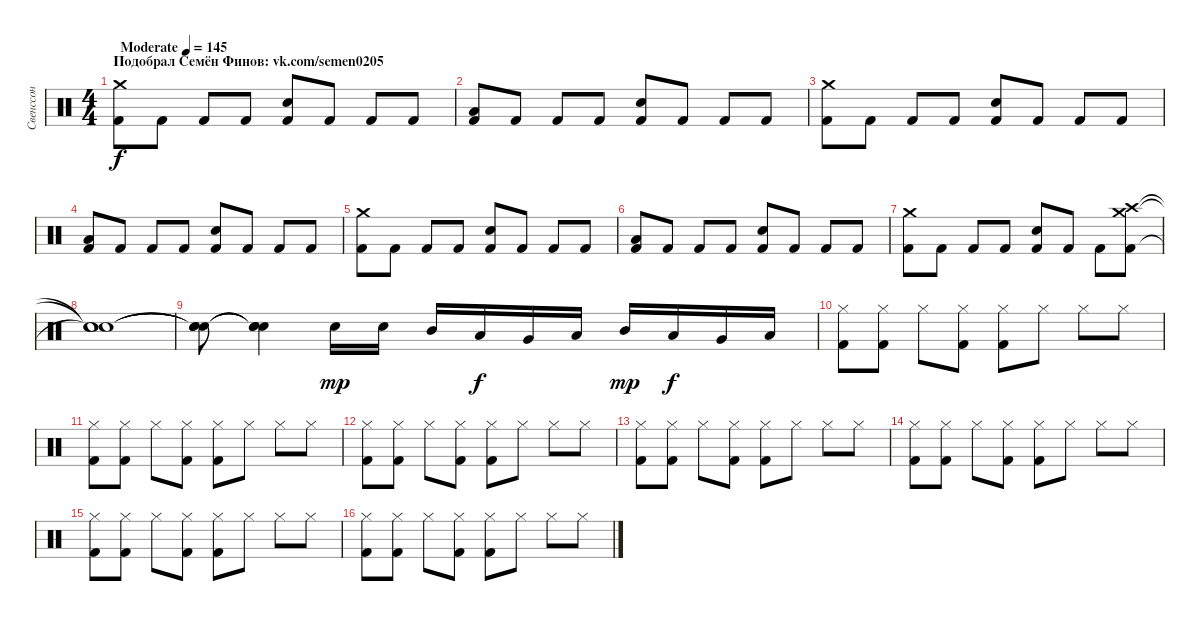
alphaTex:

\track ("Свенссон" "Свенссон") {instrument percussion}
\staff {score}
\articulation defaults
\ts (4 4)
\section ("" "Подобрал Семён Финов: vk.com/semen0205")
\tempo (145 "Moderate")
\clef neutral
\ks c
("Crash medium (hit)" "Kick (hit) 2").8{dy f} "Kick (hit) 2".8 "Kick (hit) 2".8 "Kick (hit) 2".8 ("Snare (hit) 2" "Kick (hit) 2").8 "Kick (hit) 2".8 "Kick (hit) 2".8 "Kick (hit) 2".8 |
("Low Floor Tom (hit)" "Kick (hit) 2").8 "Kick (hit) 2".8 "Kick (hit) 2".8 "Kick (hit) 2".8 ("Snare (hit) 2" "Kick (hit) 2").8 "Kick (hit) 2".8 "Kick (hit) 2".8 "Kick (hit) 2".8 |
("Crash medium (hit)" "Kick (hit) 2").8 "Kick (hit) 2".8 "Kick (hit) 2".8 "Kick (hit) 2".8 ("Snare (hit) 2" "Kick (hit) 2").8 "Kick (hit) 2".8 "Kick (hit) 2".8 "Kick (hit) 2".8 |
("Low Floor Tom (hit)" "Kick (hit) 2").8 "Kick (hit) 2".8 "Kick (hit) 2".8 "Kick (hit) 2".8 ("Snare (hit) 2" "Kick (hit) 2").8 "Kick (hit) 2".8 "Kick (hit) 2".8 "Kick (hit) 2".8 |
("Crash medium (hit)" "Kick (hit) 2").8 "Kick (hit) 2".8 "Kick (hit) 2".8 "Kick (hit) 2".8 ("Snare (hit) 2" "Kick (hit) 2").8 "Kick (hit) 2".8 "Kick (hit) 2".8 "Kick (hit) 2".8 |
("Low Floor Tom (hit)" "Kick (hit) 2").8 "Kick (hit) 2".8 "Kick (hit) 2".8 "Kick (hit) 2".8 ("Snare (hit) 2" "Kick (hit) 2").8 "Kick (hit) 2".8 "Kick (hit) 2".8 "Kick (hit) 2".8 |
("Crash medium (hit)" "Kick (hit) 2").8 "Kick (hit) 2".8 "Kick (hit) 2".8 "Kick (hit) 2".8 ("Snare (hit) 2" "Kick (hit) 2").8 "Kick (hit) 2".8 "Kick (hit) 2".8 ("Crash high (hit)" "Crash medium (hit)" "Kick (hit) 2").8 |
("Snare (hit)"{t} "Snare (hit)"{t} "Snare (hit)"{t}).1 |
("Snare (hit)"{t} "Snare (hit)"{t} "Snare (hit)"{t}).8 ("Snare (hit)"{t} "Snare (hit)"{t} "Snare (hit)"{t}).4 "Snare (hit) 2".16{dy mp} "Snare (hit) 2".16 "Mid Tom (hit)".16 "Low Tom (hit)".16{dy f} "Very Low Tom (hit)".16 "Low Floor Tom (hit)".16 "Mid Tom (hit)".16{dy mp} "Low Tom (hit)".16{dy f} "Very Low Tom (hit)".16 "Low Floor Tom (hit)".16 |
("Hi-Hat (closed)" "Kick (hit) 2").8 ("Hi-Hat (closed)" "Kick (hit) 2").8 "Hi-Hat (closed)".8 ("Hi-Hat (closed)" "Kick (hit) 2").8 ("Hi-Hat (closed)" "Kick (hit) 2").8 "Hi-Hat (closed)".8 "Hi-Hat (closed)".8 "Hi-Hat (closed)".8 |
("Hi-Hat (closed)" "Kick (hit) 2").8 ("Hi-Hat (closed)" "Kick (hit) 2").8 "Hi-Hat (closed)".8 ("Hi-Hat (closed)" "Kick (hit) 2").8 ("Hi-Hat (closed)" "Kick (hit) 2").8 "Hi-Hat (closed)".8 "Hi-Hat (closed)".8 "Hi-Hat (closed)".8 |
("Hi-Hat (closed)" "Kick (hit) 2").8 ("Hi-Hat (closed)" "Kick (hit) 2").8 "Hi-Hat (closed)".8 ("Hi-Hat (closed)" "Kick (hit) 2").8 ("Hi-Hat (closed)" "Kick (hit) 2").8 "Hi-Hat (closed)".8 "Hi-Hat (closed)".8 "Hi-Hat (closed)".8 |
("Hi-Hat (closed)" "Kick (hit) 2").8 ("Hi-Hat (closed)" "Kick (hit) 2").8 "Hi-Hat (closed)".8 ("Hi-Hat (closed)" "Kick (hit) 2").8 ("Hi-Hat (closed)" "Kick (hit) 2").8 "Hi-Hat (closed)".8 "Hi-Hat (closed)".8 "Hi-Hat (closed)".8 |
("Hi-Hat (closed)" "Kick (hit) 2").8 ("Hi-Hat (closed)" "Kick (hit) 2").8 "Hi-Hat (closed)".8 ("Hi-Hat (closed)" "Kick (hit) 2").8 ("Hi-Hat (closed)" "Kick (hit) 2").8 "Hi-Hat (closed)".8 "Hi-Hat (closed)".8 "Hi-Hat (closed)".8 |
("Hi-Hat (closed)" "Kick (hit) 2").8 ("Hi-Hat (closed)" "Kick (hit) 2").8 "Hi-Hat (closed)".8 ("Hi-Hat (closed)" "Kick (hit) 2").8 ("Hi-Hat (closed)" "Kick (hit) 2").8 "Hi-Hat (closed)".8 "Hi-Hat (closed)".8 "Hi-Hat (closed)".8 |
("Hi-Hat (closed)" "Kick (hit) 2").8 ("Hi-Hat (closed)" "Kick (hit) 2").8 "Hi-Hat (closed)".8 ("Hi-Hat (closed)" "Kick (hit) 2").8 ("Hi-Hat (closed)" "Kick (hit) 2").8 "Hi-Hat (closed)".8 "Hi-Hat (closed)".8 "Hi-Hat (closed)".8
